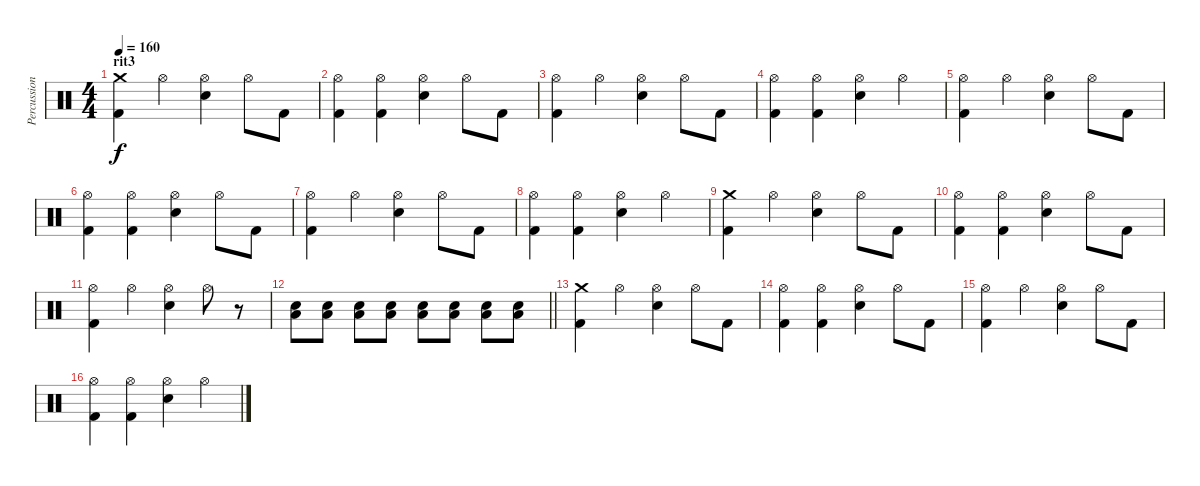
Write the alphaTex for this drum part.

\track ("Percussioni" "Percussion") {instrument percussion}
\staff {score}
\articulation defaults
\ts (4 4)
\section ("" "rit3")
\tempo 160
\clef neutral
\ks c
("Crash medium (hit)" "Kick (hit) 2").4{dy f} "Hi-Hat (open)".4 ("Hi-Hat (open)" "Snare (hit) 2").4 "Hi-Hat (open)".8 "Kick (hit) 2".8 |
("Hi-Hat (open)" "Kick (hit) 2").4 ("Hi-Hat (open)" "Kick (hit) 2").4 ("Hi-Hat (open)" "Snare (hit) 2").4 "Hi-Hat (open)".8 "Kick (hit) 2".8 |
("Hi-Hat (open)" "Kick (hit) 2").4 "Hi-Hat (open)".4 ("Hi-Hat (open)" "Snare (hit) 2").4 "Hi-Hat (open)".8 "Kick (hit) 2".8 |
("Hi-Hat (open)" "Kick (hit) 2").4 ("Hi-Hat (open)" "Kick (hit) 2").4 ("Hi-Hat (open)" "Snare (hit) 2").4 "Hi-Hat (open)".4 |
("Hi-Hat (open)" "Kick (hit) 2").4 "Hi-Hat (open)".4 ("Hi-Hat (open)" "Snare (hit) 2").4 "Hi-Hat (open)".8 "Kick (hit) 2".8 |
("Hi-Hat (open)" "Kick (hit) 2").4 ("Hi-Hat (open)" "Kick (hit) 2").4 ("Hi-Hat (open)" "Snare (hit) 2").4 "Hi-Hat (open)".8 "Kick (hit) 2".8 |
("Hi-Hat (open)" "Kick (hit) 2").4 "Hi-Hat (open)".4 ("Hi-Hat (open)" "Snare (hit) 2").4 "Hi-Hat (open)".8 "Kick (hit) 2".8 |
("Hi-Hat (open)" "Kick (hit) 2").4 ("Hi-Hat (open)" "Kick (hit) 2").4 ("Hi-Hat (open)" "Snare (hit) 2").4 "Hi-Hat (open)".4 |
("Crash medium (hit)" "Kick (hit) 2").4 "Hi-Hat (open)".4 ("Hi-Hat (open)" "Snare (hit) 2").4 "Hi-Hat (open)".8 "Kick (hit) 2".8 |
("Hi-Hat (open)" "Kick (hit) 2").4 ("Hi-Hat (open)" "Kick (hit) 2").4 ("Hi-Hat (open)" "Snare (hit) 2").4 "Hi-Hat (open)".8 "Kick (hit) 2".8 |
("Hi-Hat (open)" "Kick (hit) 2").4 "Hi-Hat (open)".4 ("Hi-Hat (open)" "Snare (hit) 2").4 "Hi-Hat (open)".8 r.8 |
\barLineRight lightlight
("Snare (hit) 2" "Low Floor Tom (hit)").8 ("Snare (hit) 2" "Low Floor Tom (hit)").8 ("Snare (hit) 2" "Low Floor Tom (hit)").8 ("Snare (hit) 2" "Low Floor Tom (hit)").8 ("Snare (hit) 2" "Low Floor Tom (hit)").8 ("Snare (hit) 2" "Low Floor Tom (hit)").8 ("Snare (hit) 2" "Low Floor Tom (hit)").8 ("Snare (hit) 2" "Low Floor Tom (hit)").8 |
("Crash medium (hit)" "Kick (hit) 2").4 "Hi-Hat (open)".4 ("Hi-Hat (open)" "Snare (hit) 2").4 "Hi-Hat (open)".8 "Kick (hit) 2".8 |
("Hi-Hat (open)" "Kick (hit) 2").4 ("Hi-Hat (open)" "Kick (hit) 2").4 ("Hi-Hat (open)" "Snare (hit) 2").4 "Hi-Hat (open)".8 "Kick (hit) 2".8 |
("Hi-Hat (open)" "Kick (hit) 2").4 "Hi-Hat (open)".4 ("Hi-Hat (open)" "Snare (hit) 2").4 "Hi-Hat (open)".8 "Kick (hit) 2".8 |
("Hi-Hat (open)" "Kick (hit) 2").4 ("Hi-Hat (open)" "Kick (hit) 2").4 ("Hi-Hat (open)" "Snare (hit) 2").4 "Hi-Hat (open)".4
